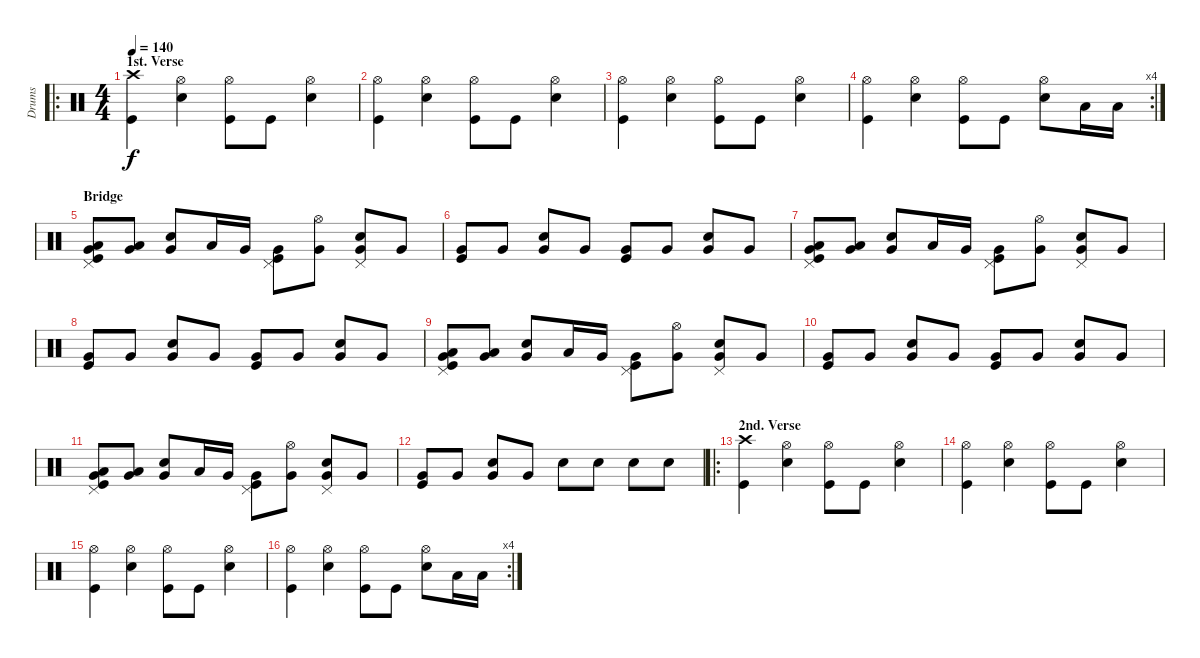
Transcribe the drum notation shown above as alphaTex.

\track ("Drums" "Drums") {instrument percussion}
\staff {score}
\articulation defaults
\ro
\ts (4 4)
\section ("" "1st. Verse")
\tempo 140
\clef neutral
\ks c
("Crash high (hit)" "Kick (hit)").4{dy f} ("Hi-Hat (open)" "Snare (hit) 2").4 ("Hi-Hat (open)" "Kick (hit)").8 "Kick (hit)".8 ("Hi-Hat (open)" "Snare (hit) 2").4 |
("Hi-Hat (open)" "Kick (hit)").4 ("Hi-Hat (open)" "Snare (hit) 2").4 ("Hi-Hat (open)" "Kick (hit)").8 "Kick (hit)".8 ("Hi-Hat (open)" "Snare (hit) 2").4 |
("Hi-Hat (open)" "Kick (hit)").4 ("Hi-Hat (open)" "Snare (hit) 2").4 ("Hi-Hat (open)" "Kick (hit)").8 "Kick (hit)".8 ("Hi-Hat (open)" "Snare (hit) 2").4 |
\rc 4
("Hi-Hat (open)" "Kick (hit)").4 ("Hi-Hat (open)" "Snare (hit) 2").4 ("Hi-Hat (open)" "Kick (hit)").8 "Kick (hit)".8 ("Hi-Hat (open)" "Snare (hit) 2").8 "Low Tom (hit)".16 "Low Tom (hit)".16 |
\section ("" "Bridge")
("Pedal Hi-Hat (hit)" "Very Low Tom (hit)" "Low Tom (hit)" "Kick (hit)").8 ("Very Low Tom (hit)" "Low Tom (hit)").8 ("Very Low Tom (hit)" "Electric Snare (hit)").8 "Low Tom (hit)".16 "Very Low Tom (hit)".16 ("Pedal Hi-Hat (hit)" "Very Low Tom (hit)" "Kick (hit)").8 ("Hi-Hat (open)" "Very Low Tom (hit)").8 ("Pedal Hi-Hat (hit)" "Very Low Tom (hit)" "Electric Snare (hit)").8 "Very Low Tom (hit)".8 |
("Very Low Tom (hit)" "Kick (hit)").8 "Very Low Tom (hit)".8 ("Very Low Tom (hit)" "Snare (hit) 2").8 "Very Low Tom (hit)".8 ("Very Low Tom (hit)" "Kick (hit)").8 "Very Low Tom (hit)".8 ("Very Low Tom (hit)" "Snare (hit) 2").8 "Very Low Tom (hit)".8 |
("Pedal Hi-Hat (hit)" "Very Low Tom (hit)" "Low Tom (hit)" "Kick (hit)").8 ("Very Low Tom (hit)" "Low Tom (hit)").8 ("Very Low Tom (hit)" "Electric Snare (hit)").8 "Low Tom (hit)".16 "Very Low Tom (hit)".16 ("Pedal Hi-Hat (hit)" "Very Low Tom (hit)" "Kick (hit)").8 ("Hi-Hat (open)" "Very Low Tom (hit)").8 ("Pedal Hi-Hat (hit)" "Very Low Tom (hit)" "Electric Snare (hit)").8 "Very Low Tom (hit)".8 |
("Very Low Tom (hit)" "Kick (hit)").8 "Very Low Tom (hit)".8 ("Very Low Tom (hit)" "Snare (hit) 2").8 "Very Low Tom (hit)".8 ("Very Low Tom (hit)" "Kick (hit)").8 "Very Low Tom (hit)".8 ("Very Low Tom (hit)" "Snare (hit) 2").8 "Very Low Tom (hit)".8 |
("Pedal Hi-Hat (hit)" "Very Low Tom (hit)" "Low Tom (hit)" "Kick (hit)").8 ("Very Low Tom (hit)" "Low Tom (hit)").8 ("Very Low Tom (hit)" "Electric Snare (hit)").8 "Low Tom (hit)".16 "Very Low Tom (hit)".16 ("Pedal Hi-Hat (hit)" "Very Low Tom (hit)" "Kick (hit)").8 ("Hi-Hat (open)" "Very Low Tom (hit)").8 ("Pedal Hi-Hat (hit)" "Very Low Tom (hit)" "Electric Snare (hit)").8 "Very Low Tom (hit)".8 |
("Very Low Tom (hit)" "Kick (hit)").8 "Very Low Tom (hit)".8 ("Very Low Tom (hit)" "Snare (hit) 2").8 "Very Low Tom (hit)".8 ("Very Low Tom (hit)" "Kick (hit)").8 "Very Low Tom (hit)".8 ("Very Low Tom (hit)" "Snare (hit) 2").8 "Very Low Tom (hit)".8 |
("Pedal Hi-Hat (hit)" "Very Low Tom (hit)" "Low Tom (hit)" "Kick (hit)").8 ("Very Low Tom (hit)" "Low Tom (hit)").8 ("Very Low Tom (hit)" "Electric Snare (hit)").8 "Low Tom (hit)".16 "Very Low Tom (hit)".16 ("Pedal Hi-Hat (hit)" "Very Low Tom (hit)" "Kick (hit)").8 ("Hi-Hat (open)" "Very Low Tom (hit)").8 ("Pedal Hi-Hat (hit)" "Very Low Tom (hit)" "Electric Snare (hit)").8 "Very Low Tom (hit)".8 |
("Very Low Tom (hit)" "Kick (hit)").8 "Very Low Tom (hit)".8 ("Very Low Tom (hit)" "Snare (hit) 2").8 "Very Low Tom (hit)".8 "Snare (hit) 2".8 "Snare (hit) 2".8 "Snare (hit) 2".8 "Snare (hit) 2".8 |
\ro
\section ("" "2nd. Verse")
("Crash high (hit)" "Kick (hit)").4 ("Hi-Hat (open)" "Snare (hit) 2").4 ("Hi-Hat (open)" "Kick (hit)").8 "Kick (hit)".8 ("Hi-Hat (open)" "Snare (hit) 2").4 |
("Hi-Hat (open)" "Kick (hit)").4 ("Hi-Hat (open)" "Snare (hit) 2").4 ("Hi-Hat (open)" "Kick (hit)").8 "Kick (hit)".8 ("Hi-Hat (open)" "Snare (hit) 2").4 |
("Hi-Hat (open)" "Kick (hit)").4 ("Hi-Hat (open)" "Snare (hit) 2").4 ("Hi-Hat (open)" "Kick (hit)").8 "Kick (hit)".8 ("Hi-Hat (open)" "Snare (hit) 2").4 |
\rc 4
("Hi-Hat (open)" "Kick (hit)").4 ("Hi-Hat (open)" "Snare (hit) 2").4 ("Hi-Hat (open)" "Kick (hit)").8 "Kick (hit)".8 ("Hi-Hat (open)" "Snare (hit) 2").8 "Low Tom (hit)".16 "Low Tom (hit)".16
